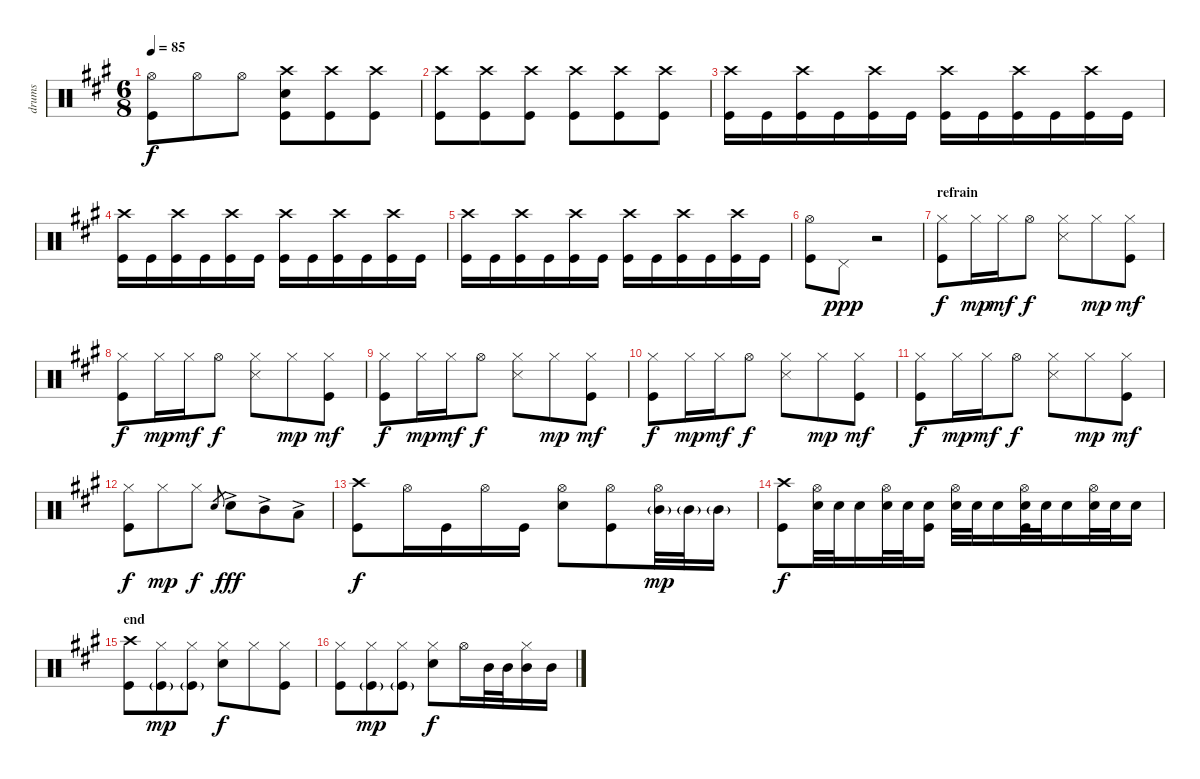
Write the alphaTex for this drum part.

\track ("drums" "drums") {instrument percussion}
\staff {score}
\articulation defaults
\ts (6 8)
\tempo 85
\clef neutral
\ks f#minor
("Hi-Hat (open)" "Kick (hit)").8{dy f} "Hi-Hat (open)".8 "Hi-Hat (open)".8 ("Crash high (hit)" "Electric Snare (hit)" "Kick (hit)").8 ("Crash high (hit)" "Kick (hit)").8 ("Crash high (hit)" "Kick (hit)").8 |
("Crash high (hit)" "Kick (hit)").8 ("Crash high (hit)" "Kick (hit)").8 ("Crash high (hit)" "Kick (hit)").8 ("Crash high (hit)" "Kick (hit)").8 ("Crash high (hit)" "Kick (hit)").8 ("Crash high (hit)" "Kick (hit)").8 |
("Crash high (hit)" "Kick (hit)").16 "Kick (hit)".16 ("Crash high (hit)" "Kick (hit)").16 "Kick (hit)".16 ("Crash high (hit)" "Kick (hit)").16 "Kick (hit)".16 ("Crash high (hit)" "Kick (hit)").16 "Kick (hit)".16 ("Crash high (hit)" "Kick (hit)").16 "Kick (hit)".16 ("Crash high (hit)" "Kick (hit)").16 "Kick (hit)".16 |
("Crash high (hit)" "Kick (hit)").16 "Kick (hit)".16 ("Crash high (hit)" "Kick (hit)").16 "Kick (hit)".16 ("Crash high (hit)" "Kick (hit)").16 "Kick (hit)".16 ("Crash high (hit)" "Kick (hit)").16 "Kick (hit)".16 ("Crash high (hit)" "Kick (hit)").16 "Kick (hit)".16 ("Crash high (hit)" "Kick (hit)").16 "Kick (hit)".16 |
("Crash high (hit)" "Kick (hit)").16 "Kick (hit)".16 ("Crash high (hit)" "Kick (hit)").16 "Kick (hit)".16 ("Crash high (hit)" "Kick (hit)").16 "Kick (hit)".16 ("Crash high (hit)" "Kick (hit)").16 "Kick (hit)".16 ("Crash high (hit)" "Kick (hit)").16 "Kick (hit)".16 ("Crash high (hit)" "Kick (hit)").16 "Kick (hit)".16 |
("Hi-Hat (open)" "Kick (hit)").8 "Pedal Hi-Hat (hit)".8{dy ppp} r.2 |
\section ("" "refrain")
("Hi-Hat (closed)" "Kick (hit)").8{dy f} "Hi-Hat (closed)".16{dy mp} "Hi-Hat (closed)".16{dy mf} "Hi-Hat (open)".8{dy f} ("Hi-Hat (closed)" "Snare (side stick) 3").8 "Hi-Hat (closed)".8{dy mp} ("Hi-Hat (closed)" "Kick (hit)").8{dy mf} |
("Hi-Hat (closed)" "Kick (hit)").8{dy f} "Hi-Hat (closed)".16{dy mp} "Hi-Hat (closed)".16{dy mf} "Hi-Hat (open)".8{dy f} ("Hi-Hat (closed)" "Snare (side stick) 3").8 "Hi-Hat (closed)".8{dy mp} ("Hi-Hat (closed)" "Kick (hit)").8{dy mf} |
("Hi-Hat (closed)" "Kick (hit)").8{dy f} "Hi-Hat (closed)".16{dy mp} "Hi-Hat (closed)".16{dy mf} "Hi-Hat (open)".8{dy f} ("Hi-Hat (closed)" "Snare (side stick) 3").8 "Hi-Hat (closed)".8{dy mp} ("Hi-Hat (closed)" "Kick (hit)").8{dy mf} |
("Hi-Hat (closed)" "Kick (hit)").8{dy f} "Hi-Hat (closed)".16{dy mp} "Hi-Hat (closed)".16{dy mf} "Hi-Hat (open)".8{dy f} ("Hi-Hat (closed)" "Snare (side stick) 3").8 "Hi-Hat (closed)".8{dy mp} ("Hi-Hat (closed)" "Kick (hit)").8{dy mf} |
("Hi-Hat (closed)" "Kick (hit)").8{dy f} "Hi-Hat (closed)".16{dy mp} "Hi-Hat (closed)".16{dy mf} "Hi-Hat (open)".8{dy f} ("Hi-Hat (closed)" "Snare (side stick) 3").8 "Hi-Hat (closed)".8{dy mp} ("Hi-Hat (closed)" "Kick (hit)").8{dy mf} |
("Hi-Hat (closed)" "Kick (hit)").8{dy f} "Hi-Hat (closed)".8{dy mp} "Hi-Hat (closed)".8{dy f} "Electric Snare (hit)".8{gr} "Electric Snare (hit)"{ac}.8{dy fff} "Mid Tom (hit)"{ac}.8 "Low Tom (hit)"{ac}.8 |
("Crash high (hit)" "Kick (hit)").8{dy f} "Hi-Hat (open)".16 "Kick (hit)".16 "Hi-Hat (open)".16 "Kick (hit)".16 ("Hi-Hat (open)" "Electric Snare (hit)").8 ("Hi-Hat (open)" "Kick (hit)").8 ("Hi-Hat (open)" "Mid Tom (hit)"{g}).32{dy mp} "Mid Tom (hit)"{g}.32 "Mid Tom (hit)"{g}.16 |
("Crash high (hit)" "Kick (hit)").8{dy f} ("Hi-Hat (open)" "Electric Snare (hit)").32 "Electric Snare (hit)".32 "Electric Snare (hit)".16 ("Hi-Hat (open)" "Electric Snare (hit)").32 "Electric Snare (hit)".32 ("Electric Snare (hit)" "Kick (hit)").16 ("Hi-Hat (open)" "Electric Snare (hit)").32 "Electric Snare (hit)".32 "Electric Snare (hit)".16 ("Hi-Hat (open)" "Electric Snare (hit)" "Kick (hit)").32 "Electric Snare (hit)".32 "Electric Snare (hit)".16 ("Hi-Hat (open)" "Electric Snare (hit)").32 "Electric Snare (hit)".32 "Electric Snare (hit)".16 |
\section ("" "end")
("Crash high (hit)" "Kick (hit)").8 ("Hi-Hat (closed)" "Kick (hit)"{g}).8{dy mp} ("Hi-Hat (closed)" "Kick (hit)"{g}).8 ("Hi-Hat (closed)" "Electric Snare (hit)").8{dy f} "Hi-Hat (closed)".8 ("Hi-Hat (closed)" "Kick (hit)").8 |
("Hi-Hat (closed)" "Kick (hit)").8 ("Hi-Hat (closed)" "Kick (hit)"{g}).8{dy mp} ("Hi-Hat (closed)" "Kick (hit)"{g}).8 ("Hi-Hat (closed)" "Electric Snare (hit)").8{dy f} "Hi-Hat (open)".16 "Mid Tom (hit)".32 "Mid Tom (hit)".32 ("Hi-Hat (closed)" "Mid Tom (hit)").16 "Mid Tom (hit)".16
